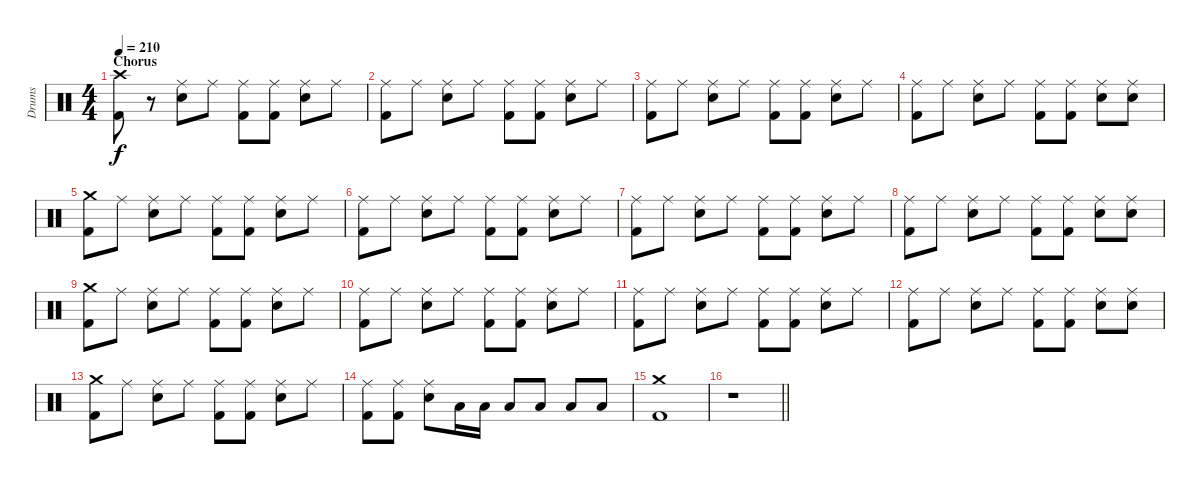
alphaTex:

\track ("Drums" "Drums") {instrument percussion}
\staff {score}
\articulation defaults
\ts (4 4)
\section ("" "Chorus")
\tempo 210
\clef neutral
\ks c
("Crash high (hit)" "Kick (hit) 2").8{dy f} r.8 ("Ride (middle)" "Electric Snare (hit)").8 "Ride (middle)".8 ("Ride (middle)" "Kick (hit) 2").8 ("Ride (middle)" "Kick (hit) 2").8 ("Ride (middle)" "Electric Snare (hit)").8 "Ride (middle)".8 |
("Ride (middle)" "Kick (hit) 2").8 "Ride (middle)".8 ("Ride (middle)" "Electric Snare (hit)").8 "Ride (middle)".8 ("Ride (middle)" "Kick (hit) 2").8 ("Ride (middle)" "Kick (hit) 2").8 ("Ride (middle)" "Electric Snare (hit)").8 "Ride (middle)".8 |
("Ride (middle)" "Kick (hit) 2").8 "Ride (middle)".8 ("Ride (middle)" "Electric Snare (hit)").8 "Ride (middle)".8 ("Ride (middle)" "Kick (hit) 2").8 ("Ride (middle)" "Kick (hit) 2").8 ("Ride (middle)" "Electric Snare (hit)").8 "Ride (middle)".8 |
("Ride (middle)" "Kick (hit) 2").8 "Ride (middle)".8 ("Ride (middle)" "Electric Snare (hit)").8 "Ride (middle)".8 ("Ride (middle)" "Kick (hit) 2").8 ("Ride (middle)" "Kick (hit) 2").8 ("Ride (middle)" "Electric Snare (hit)").8 ("Ride (middle)" "Electric Snare (hit)").8 |
("Crash medium (hit)" "Kick (hit) 2").8 "Ride (middle)".8 ("Ride (middle)" "Electric Snare (hit)").8 "Ride (middle)".8 ("Ride (middle)" "Kick (hit) 2").8 ("Ride (middle)" "Kick (hit) 2").8 ("Ride (middle)" "Electric Snare (hit)").8 "Ride (middle)".8 |
("Ride (middle)" "Kick (hit) 2").8 "Ride (middle)".8 ("Ride (middle)" "Electric Snare (hit)").8 "Ride (middle)".8 ("Ride (middle)" "Kick (hit) 2").8 ("Ride (middle)" "Kick (hit) 2").8 ("Ride (middle)" "Electric Snare (hit)").8 "Ride (middle)".8 |
("Ride (middle)" "Kick (hit) 2").8 "Ride (middle)".8 ("Ride (middle)" "Electric Snare (hit)").8 "Ride (middle)".8 ("Ride (middle)" "Kick (hit) 2").8 ("Ride (middle)" "Kick (hit) 2").8 ("Ride (middle)" "Electric Snare (hit)").8 "Ride (middle)".8 |
("Ride (middle)" "Kick (hit) 2").8 "Ride (middle)".8 ("Ride (middle)" "Electric Snare (hit)").8 "Ride (middle)".8 ("Ride (middle)" "Kick (hit) 2").8 ("Ride (middle)" "Kick (hit) 2").8 ("Ride (middle)" "Electric Snare (hit)").8 ("Ride (middle)" "Electric Snare (hit)").8 |
("Crash medium (hit)" "Kick (hit) 2").8 "Ride (middle)".8 ("Ride (middle)" "Electric Snare (hit)").8 "Ride (middle)".8 ("Ride (middle)" "Kick (hit) 2").8 ("Ride (middle)" "Kick (hit) 2").8 ("Ride (middle)" "Electric Snare (hit)").8 "Ride (middle)".8 |
("Ride (middle)" "Kick (hit) 2").8 "Ride (middle)".8 ("Ride (middle)" "Electric Snare (hit)").8 "Ride (middle)".8 ("Ride (middle)" "Kick (hit) 2").8 ("Ride (middle)" "Kick (hit) 2").8 ("Ride (middle)" "Electric Snare (hit)").8 "Ride (middle)".8 |
("Ride (middle)" "Kick (hit) 2").8 "Ride (middle)".8 ("Ride (middle)" "Electric Snare (hit)").8 "Ride (middle)".8 ("Ride (middle)" "Kick (hit) 2").8 ("Ride (middle)" "Kick (hit) 2").8 ("Ride (middle)" "Electric Snare (hit)").8 "Ride (middle)".8 |
("Ride (middle)" "Kick (hit) 2").8 "Ride (middle)".8 ("Ride (middle)" "Electric Snare (hit)").8 "Ride (middle)".8 ("Ride (middle)" "Kick (hit) 2").8 ("Ride (middle)" "Kick (hit) 2").8 ("Ride (middle)" "Electric Snare (hit)").8 ("Ride (middle)" "Electric Snare (hit)").8 |
("Crash medium (hit)" "Kick (hit) 2").8 "Ride (middle)".8 ("Ride (middle)" "Electric Snare (hit)").8 "Ride (middle)".8 ("Ride (middle)" "Kick (hit) 2").8 ("Ride (middle)" "Kick (hit) 2").8 ("Ride (middle)" "Electric Snare (hit)").8 "Ride (middle)".8 |
("Ride (middle)" "Kick (hit) 2").8 ("Ride (middle)" "Kick (hit) 2").8 ("Ride (middle)" "Electric Snare (hit)").8 "Low Tom (hit)".16 "Low Tom (hit)".16 "Low Tom (hit)".8 "Low Tom (hit)".8 "Low Floor Tom (hit)".8 "Low Floor Tom (hit)".8 |
("Crash medium (hit)" "Kick (hit) 2").1 |
\barLineRight lightlight
r.1
